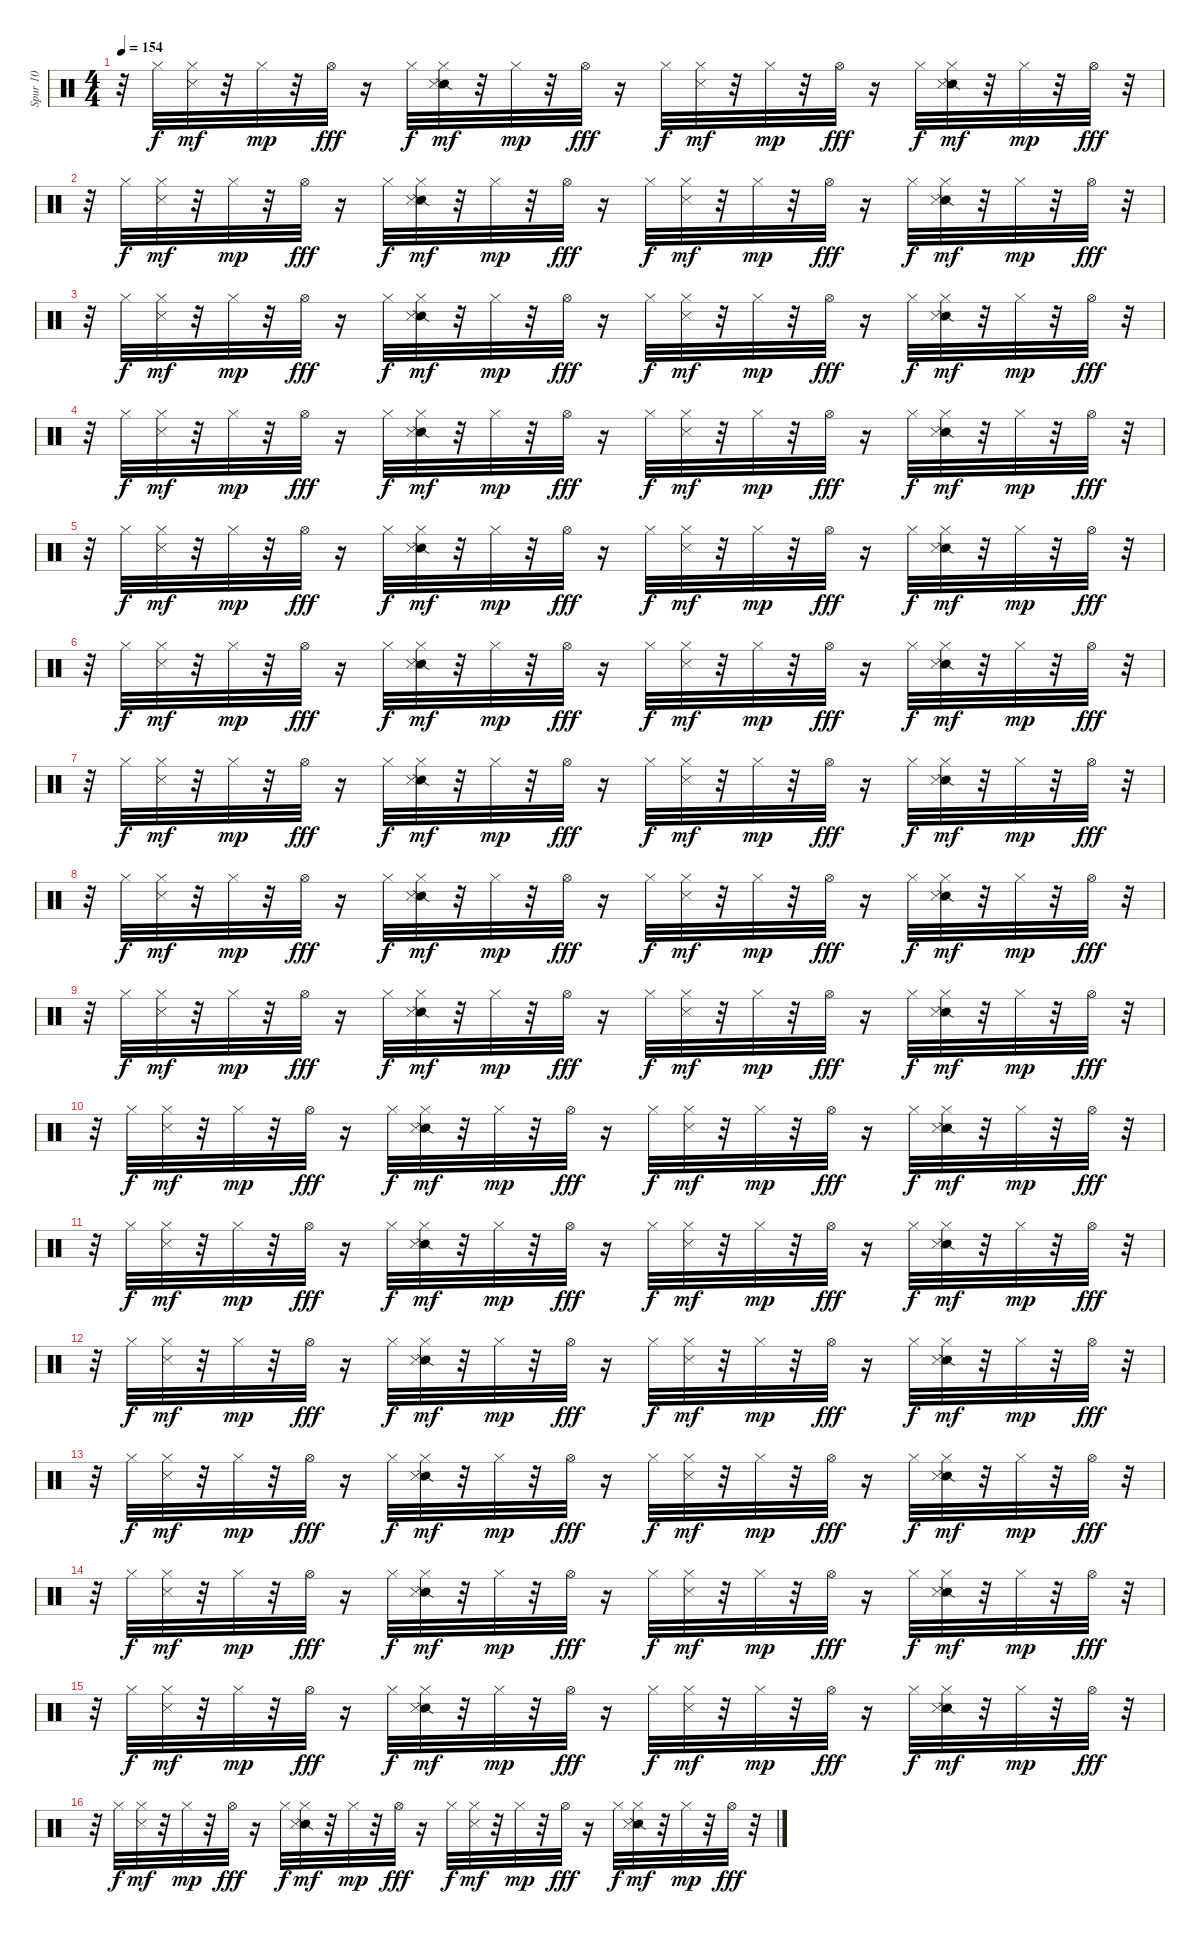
\track ("Spur 10" "Spur 10") {instrument percussion}
\staff {score}
\articulation defaults
\ts (4 4)
\tempo 154
\clef neutral
\ks c
r.32{dy fff} "Hi-Hat (closed)".32{dy f} ("Metronome (hit)" "Hi-Hat (closed)").32{dy mf} r.32 "Hi-Hat (closed)".32{dy mp} r.32 "Hi-Hat (open)".32{dy fff} r.16 "Hi-Hat (closed)".32{dy f} ("Snare (side stick) 2" "Metronome (hit)" "Hi-Hat (closed)").32{dy mf} r.32 "Hi-Hat (closed)".32{dy mp} r.32 "Hi-Hat (open)".32{dy fff} r.16 "Hi-Hat (closed)".32{dy f} ("Metronome (hit)" "Hi-Hat (closed)").32{dy mf} r.32 "Hi-Hat (closed)".32{dy mp} r.32 "Hi-Hat (open)".32{dy fff} r.16 "Hi-Hat (closed)".32{dy f} ("Snare (side stick) 2" "Metronome (hit)" "Hi-Hat (closed)").32{dy mf} r.32 "Hi-Hat (closed)".32{dy mp} r.32 "Hi-Hat (open)".32{dy fff} r.32 |
r.32 "Hi-Hat (closed)".32{dy f} ("Metronome (hit)" "Hi-Hat (closed)").32{dy mf} r.32 "Hi-Hat (closed)".32{dy mp} r.32 "Hi-Hat (open)".32{dy fff} r.16 "Hi-Hat (closed)".32{dy f} ("Snare (side stick) 2" "Metronome (hit)" "Hi-Hat (closed)").32{dy mf} r.32 "Hi-Hat (closed)".32{dy mp} r.32 "Hi-Hat (open)".32{dy fff} r.16 "Hi-Hat (closed)".32{dy f} ("Metronome (hit)" "Hi-Hat (closed)").32{dy mf} r.32 "Hi-Hat (closed)".32{dy mp} r.32 "Hi-Hat (open)".32{dy fff} r.16 "Hi-Hat (closed)".32{dy f} ("Snare (side stick) 2" "Metronome (hit)" "Hi-Hat (closed)").32{dy mf} r.32 "Hi-Hat (closed)".32{dy mp} r.32 "Hi-Hat (open)".32{dy fff} r.32 |
r.32 "Hi-Hat (closed)".32{dy f} ("Metronome (hit)" "Hi-Hat (closed)").32{dy mf} r.32 "Hi-Hat (closed)".32{dy mp} r.32 "Hi-Hat (open)".32{dy fff} r.16 "Hi-Hat (closed)".32{dy f} ("Snare (side stick) 2" "Metronome (hit)" "Hi-Hat (closed)").32{dy mf} r.32 "Hi-Hat (closed)".32{dy mp} r.32 "Hi-Hat (open)".32{dy fff} r.16 "Hi-Hat (closed)".32{dy f} ("Metronome (hit)" "Hi-Hat (closed)").32{dy mf} r.32 "Hi-Hat (closed)".32{dy mp} r.32 "Hi-Hat (open)".32{dy fff} r.16 "Hi-Hat (closed)".32{dy f} ("Snare (side stick) 2" "Metronome (hit)" "Hi-Hat (closed)").32{dy mf} r.32 "Hi-Hat (closed)".32{dy mp} r.32 "Hi-Hat (open)".32{dy fff} r.32 |
r.32 "Hi-Hat (closed)".32{dy f} ("Metronome (hit)" "Hi-Hat (closed)").32{dy mf} r.32 "Hi-Hat (closed)".32{dy mp} r.32 "Hi-Hat (open)".32{dy fff} r.16 "Hi-Hat (closed)".32{dy f} ("Snare (side stick) 2" "Metronome (hit)" "Hi-Hat (closed)").32{dy mf} r.32 "Hi-Hat (closed)".32{dy mp} r.32 "Hi-Hat (open)".32{dy fff} r.16 "Hi-Hat (closed)".32{dy f} ("Metronome (hit)" "Hi-Hat (closed)").32{dy mf} r.32 "Hi-Hat (closed)".32{dy mp} r.32 "Hi-Hat (open)".32{dy fff} r.16 "Hi-Hat (closed)".32{dy f} ("Snare (side stick) 2" "Metronome (hit)" "Hi-Hat (closed)").32{dy mf} r.32 "Hi-Hat (closed)".32{dy mp} r.32 "Hi-Hat (open)".32{dy fff} r.32 |
r.32 "Hi-Hat (closed)".32{dy f} ("Metronome (hit)" "Hi-Hat (closed)").32{dy mf} r.32 "Hi-Hat (closed)".32{dy mp} r.32 "Hi-Hat (open)".32{dy fff} r.16 "Hi-Hat (closed)".32{dy f} ("Snare (side stick) 2" "Metronome (hit)" "Hi-Hat (closed)").32{dy mf} r.32 "Hi-Hat (closed)".32{dy mp} r.32 "Hi-Hat (open)".32{dy fff} r.16 "Hi-Hat (closed)".32{dy f} ("Metronome (hit)" "Hi-Hat (closed)").32{dy mf} r.32 "Hi-Hat (closed)".32{dy mp} r.32 "Hi-Hat (open)".32{dy fff} r.16 "Hi-Hat (closed)".32{dy f} ("Snare (side stick) 2" "Metronome (hit)" "Hi-Hat (closed)").32{dy mf} r.32 "Hi-Hat (closed)".32{dy mp} r.32 "Hi-Hat (open)".32{dy fff} r.32 |
r.32 "Hi-Hat (closed)".32{dy f} ("Metronome (hit)" "Hi-Hat (closed)").32{dy mf} r.32 "Hi-Hat (closed)".32{dy mp} r.32 "Hi-Hat (open)".32{dy fff} r.16 "Hi-Hat (closed)".32{dy f} ("Snare (side stick) 2" "Metronome (hit)" "Hi-Hat (closed)").32{dy mf} r.32 "Hi-Hat (closed)".32{dy mp} r.32 "Hi-Hat (open)".32{dy fff} r.16 "Hi-Hat (closed)".32{dy f} ("Metronome (hit)" "Hi-Hat (closed)").32{dy mf} r.32 "Hi-Hat (closed)".32{dy mp} r.32 "Hi-Hat (open)".32{dy fff} r.16 "Hi-Hat (closed)".32{dy f} ("Snare (side stick) 2" "Metronome (hit)" "Hi-Hat (closed)").32{dy mf} r.32 "Hi-Hat (closed)".32{dy mp} r.32 "Hi-Hat (open)".32{dy fff} r.32 |
r.32 "Hi-Hat (closed)".32{dy f} ("Metronome (hit)" "Hi-Hat (closed)").32{dy mf} r.32 "Hi-Hat (closed)".32{dy mp} r.32 "Hi-Hat (open)".32{dy fff} r.16 "Hi-Hat (closed)".32{dy f} ("Snare (side stick) 2" "Metronome (hit)" "Hi-Hat (closed)").32{dy mf} r.32 "Hi-Hat (closed)".32{dy mp} r.32 "Hi-Hat (open)".32{dy fff} r.16 "Hi-Hat (closed)".32{dy f} ("Metronome (hit)" "Hi-Hat (closed)").32{dy mf} r.32 "Hi-Hat (closed)".32{dy mp} r.32 "Hi-Hat (open)".32{dy fff} r.16 "Hi-Hat (closed)".32{dy f} ("Snare (side stick) 2" "Metronome (hit)" "Hi-Hat (closed)").32{dy mf} r.32 "Hi-Hat (closed)".32{dy mp} r.32 "Hi-Hat (open)".32{dy fff} r.32 |
r.32 "Hi-Hat (closed)".32{dy f} ("Metronome (hit)" "Hi-Hat (closed)").32{dy mf} r.32 "Hi-Hat (closed)".32{dy mp} r.32 "Hi-Hat (open)".32{dy fff} r.16 "Hi-Hat (closed)".32{dy f} ("Snare (side stick) 2" "Metronome (hit)" "Hi-Hat (closed)").32{dy mf} r.32 "Hi-Hat (closed)".32{dy mp} r.32 "Hi-Hat (open)".32{dy fff} r.16 "Hi-Hat (closed)".32{dy f} ("Metronome (hit)" "Hi-Hat (closed)").32{dy mf} r.32 "Hi-Hat (closed)".32{dy mp} r.32 "Hi-Hat (open)".32{dy fff} r.16 "Hi-Hat (closed)".32{dy f} ("Snare (side stick) 2" "Metronome (hit)" "Hi-Hat (closed)").32{dy mf} r.32 "Hi-Hat (closed)".32{dy mp} r.32 "Hi-Hat (open)".32{dy fff} r.32 |
r.32 "Hi-Hat (closed)".32{dy f} ("Metronome (hit)" "Hi-Hat (closed)").32{dy mf} r.32 "Hi-Hat (closed)".32{dy mp} r.32 "Hi-Hat (open)".32{dy fff} r.16 "Hi-Hat (closed)".32{dy f} ("Snare (side stick) 2" "Metronome (hit)" "Hi-Hat (closed)").32{dy mf} r.32 "Hi-Hat (closed)".32{dy mp} r.32 "Hi-Hat (open)".32{dy fff} r.16 "Hi-Hat (closed)".32{dy f} ("Metronome (hit)" "Hi-Hat (closed)").32{dy mf} r.32 "Hi-Hat (closed)".32{dy mp} r.32 "Hi-Hat (open)".32{dy fff} r.16 "Hi-Hat (closed)".32{dy f} ("Snare (side stick) 2" "Metronome (hit)" "Hi-Hat (closed)").32{dy mf} r.32 "Hi-Hat (closed)".32{dy mp} r.32 "Hi-Hat (open)".32{dy fff} r.32 |
r.32 "Hi-Hat (closed)".32{dy f} ("Metronome (hit)" "Hi-Hat (closed)").32{dy mf} r.32 "Hi-Hat (closed)".32{dy mp} r.32 "Hi-Hat (open)".32{dy fff} r.16 "Hi-Hat (closed)".32{dy f} ("Snare (side stick) 2" "Metronome (hit)" "Hi-Hat (closed)").32{dy mf} r.32 "Hi-Hat (closed)".32{dy mp} r.32 "Hi-Hat (open)".32{dy fff} r.16 "Hi-Hat (closed)".32{dy f} ("Metronome (hit)" "Hi-Hat (closed)").32{dy mf} r.32 "Hi-Hat (closed)".32{dy mp} r.32 "Hi-Hat (open)".32{dy fff} r.16 "Hi-Hat (closed)".32{dy f} ("Snare (side stick) 2" "Metronome (hit)" "Hi-Hat (closed)").32{dy mf} r.32 "Hi-Hat (closed)".32{dy mp} r.32 "Hi-Hat (open)".32{dy fff} r.32 |
r.32 "Hi-Hat (closed)".32{dy f} ("Metronome (hit)" "Hi-Hat (closed)").32{dy mf} r.32 "Hi-Hat (closed)".32{dy mp} r.32 "Hi-Hat (open)".32{dy fff} r.16 "Hi-Hat (closed)".32{dy f} ("Snare (side stick) 2" "Metronome (hit)" "Hi-Hat (closed)").32{dy mf} r.32 "Hi-Hat (closed)".32{dy mp} r.32 "Hi-Hat (open)".32{dy fff} r.16 "Hi-Hat (closed)".32{dy f} ("Metronome (hit)" "Hi-Hat (closed)").32{dy mf} r.32 "Hi-Hat (closed)".32{dy mp} r.32 "Hi-Hat (open)".32{dy fff} r.16 "Hi-Hat (closed)".32{dy f} ("Snare (side stick) 2" "Metronome (hit)" "Hi-Hat (closed)").32{dy mf} r.32 "Hi-Hat (closed)".32{dy mp} r.32 "Hi-Hat (open)".32{dy fff} r.32 |
r.32 "Hi-Hat (closed)".32{dy f} ("Metronome (hit)" "Hi-Hat (closed)").32{dy mf} r.32 "Hi-Hat (closed)".32{dy mp} r.32 "Hi-Hat (open)".32{dy fff} r.16 "Hi-Hat (closed)".32{dy f} ("Snare (side stick) 2" "Metronome (hit)" "Hi-Hat (closed)").32{dy mf} r.32 "Hi-Hat (closed)".32{dy mp} r.32 "Hi-Hat (open)".32{dy fff} r.16 "Hi-Hat (closed)".32{dy f} ("Metronome (hit)" "Hi-Hat (closed)").32{dy mf} r.32 "Hi-Hat (closed)".32{dy mp} r.32 "Hi-Hat (open)".32{dy fff} r.16 "Hi-Hat (closed)".32{dy f} ("Snare (side stick) 2" "Metronome (hit)" "Hi-Hat (closed)").32{dy mf} r.32 "Hi-Hat (closed)".32{dy mp} r.32 "Hi-Hat (open)".32{dy fff} r.32 |
r.32 "Hi-Hat (closed)".32{dy f} ("Metronome (hit)" "Hi-Hat (closed)").32{dy mf} r.32 "Hi-Hat (closed)".32{dy mp} r.32 "Hi-Hat (open)".32{dy fff} r.16 "Hi-Hat (closed)".32{dy f} ("Snare (side stick) 2" "Metronome (hit)" "Hi-Hat (closed)").32{dy mf} r.32 "Hi-Hat (closed)".32{dy mp} r.32 "Hi-Hat (open)".32{dy fff} r.16 "Hi-Hat (closed)".32{dy f} ("Metronome (hit)" "Hi-Hat (closed)").32{dy mf} r.32 "Hi-Hat (closed)".32{dy mp} r.32 "Hi-Hat (open)".32{dy fff} r.16 "Hi-Hat (closed)".32{dy f} ("Snare (side stick) 2" "Metronome (hit)" "Hi-Hat (closed)").32{dy mf} r.32 "Hi-Hat (closed)".32{dy mp} r.32 "Hi-Hat (open)".32{dy fff} r.32 |
r.32 "Hi-Hat (closed)".32{dy f} ("Metronome (hit)" "Hi-Hat (closed)").32{dy mf} r.32 "Hi-Hat (closed)".32{dy mp} r.32 "Hi-Hat (open)".32{dy fff} r.16 "Hi-Hat (closed)".32{dy f} ("Snare (side stick) 2" "Metronome (hit)" "Hi-Hat (closed)").32{dy mf} r.32 "Hi-Hat (closed)".32{dy mp} r.32 "Hi-Hat (open)".32{dy fff} r.16 "Hi-Hat (closed)".32{dy f} ("Metronome (hit)" "Hi-Hat (closed)").32{dy mf} r.32 "Hi-Hat (closed)".32{dy mp} r.32 "Hi-Hat (open)".32{dy fff} r.16 "Hi-Hat (closed)".32{dy f} ("Snare (side stick) 2" "Metronome (hit)" "Hi-Hat (closed)").32{dy mf} r.32 "Hi-Hat (closed)".32{dy mp} r.32 "Hi-Hat (open)".32{dy fff} r.32 |
r.32 "Hi-Hat (closed)".32{dy f} ("Metronome (hit)" "Hi-Hat (closed)").32{dy mf} r.32 "Hi-Hat (closed)".32{dy mp} r.32 "Hi-Hat (open)".32{dy fff} r.16 "Hi-Hat (closed)".32{dy f} ("Snare (side stick) 2" "Metronome (hit)" "Hi-Hat (closed)").32{dy mf} r.32 "Hi-Hat (closed)".32{dy mp} r.32 "Hi-Hat (open)".32{dy fff} r.16 "Hi-Hat (closed)".32{dy f} ("Metronome (hit)" "Hi-Hat (closed)").32{dy mf} r.32 "Hi-Hat (closed)".32{dy mp} r.32 "Hi-Hat (open)".32{dy fff} r.16 "Hi-Hat (closed)".32{dy f} ("Snare (side stick) 2" "Metronome (hit)" "Hi-Hat (closed)").32{dy mf} r.32 "Hi-Hat (closed)".32{dy mp} r.32 "Hi-Hat (open)".32{dy fff} r.32 |
r.32 "Hi-Hat (closed)".32{dy f} ("Metronome (hit)" "Hi-Hat (closed)").32{dy mf} r.32 "Hi-Hat (closed)".32{dy mp} r.32 "Hi-Hat (open)".32{dy fff} r.16 "Hi-Hat (closed)".32{dy f} ("Snare (side stick) 2" "Metronome (hit)" "Hi-Hat (closed)").32{dy mf} r.32 "Hi-Hat (closed)".32{dy mp} r.32 "Hi-Hat (open)".32{dy fff} r.16 "Hi-Hat (closed)".32{dy f} ("Metronome (hit)" "Hi-Hat (closed)").32{dy mf} r.32 "Hi-Hat (closed)".32{dy mp} r.32 "Hi-Hat (open)".32{dy fff} r.16 "Hi-Hat (closed)".32{dy f} ("Snare (side stick) 2" "Metronome (hit)" "Hi-Hat (closed)").32{dy mf} r.32 "Hi-Hat (closed)".32{dy mp} r.32 "Hi-Hat (open)".32{dy fff} r.32
